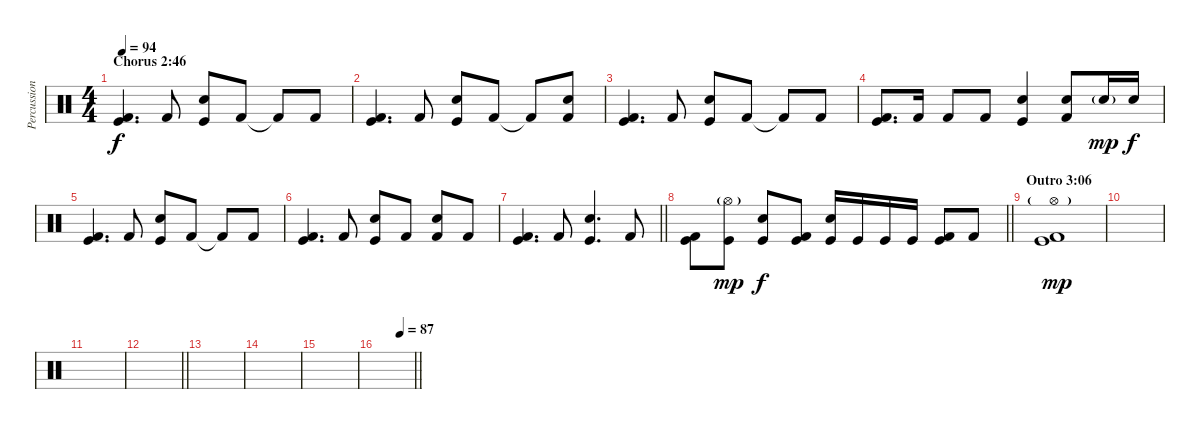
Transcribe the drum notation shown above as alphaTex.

\track ("Percussion" "Percussion") {instrument percussion}
\staff {score}
\articulation defaults
\ts (4 4)
\section ("" "Chorus 2:46")
\tempo 94
\clef neutral
\ks c
("Kick (hit)" "Kick (hit) 2").4{d dy f} "Kick (hit) 2".8 ("Electric Snare (hit)" "Kick (hit)").8 "Kick (hit) 2".8 "Kick (hit) 2"{t}.8 "Kick (hit) 2".8 |
("Kick (hit)" "Kick (hit) 2").4{d} "Kick (hit) 2".8 ("Electric Snare (hit)" "Kick (hit)").8 "Kick (hit) 2".8 "Kick (hit) 2"{t}.8 ("Electric Snare (hit)" "Kick (hit) 2").8 |
("Kick (hit)" "Kick (hit) 2").4{d} "Kick (hit) 2".8 ("Electric Snare (hit)" "Kick (hit)").8 "Kick (hit) 2".8 "Kick (hit) 2"{t}.8 "Kick (hit) 2".8 |
("Kick (hit)" "Kick (hit) 2").8{d} "Kick (hit) 2".16 "Kick (hit) 2".8 "Kick (hit) 2".8 ("Electric Snare (hit)" "Kick (hit)").4 ("Electric Snare (hit)" "Kick (hit) 2").8 "Electric Snare (hit)"{g}.16{dy mp} "Electric Snare (hit)".16{dy f} |
("Kick (hit)" "Kick (hit) 2").4{d} "Kick (hit) 2".8 ("Electric Snare (hit)" "Kick (hit)").8 "Kick (hit) 2".8 "Kick (hit) 2"{t}.8 "Kick (hit) 2".8 |
("Kick (hit)" "Kick (hit) 2").4{d} "Kick (hit) 2".8 ("Electric Snare (hit)" "Kick (hit)").8 "Kick (hit) 2".8 ("Electric Snare (hit)" "Kick (hit) 2").8 "Kick (hit) 2".8 |
\barLineRight lightlight
("Kick (hit)" "Kick (hit) 2").4{d} "Kick (hit) 2".8 ("Electric Snare (hit)" "Kick (hit)").4{d} "Kick (hit) 2".8 |
\barLineRight lightlight
("Kick (hit)" "Kick (hit) 2").8 ("Hi-Hat (open)"{g} "Kick (hit)").8{dy mp} ("Electric Snare (hit)" "Kick (hit)").8{dy f} ("Kick (hit)" "Kick (hit) 2").8 ("Electric Snare (hit)" "Kick (hit)").16 "Kick (hit)".16 "Kick (hit)".16 "Kick (hit)".16 ("Kick (hit)" "Kick (hit) 2").8 "Kick (hit) 2".8 |
\section ("" "Outro 3:06")
("Hi-Hat (open)"{g} "Kick (hit)" "Kick (hit) 2").1{dy mp} |
|
|
\barLineRight lightlight
|
|
|
|
\tempo (87 0.625)
\barLineRight lightlight
